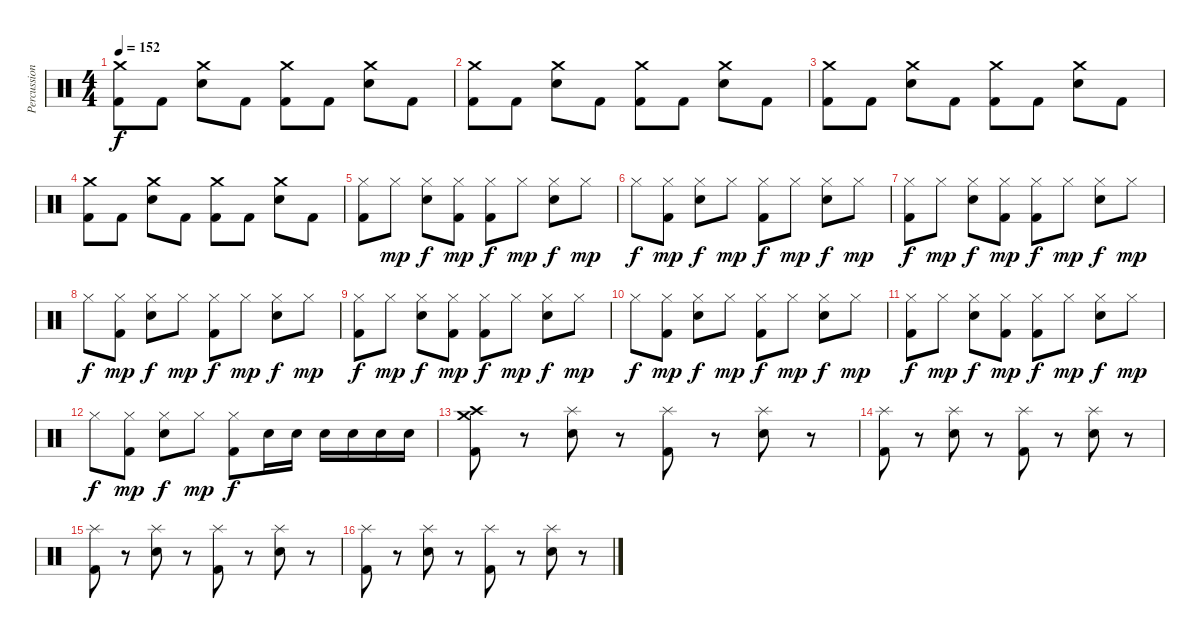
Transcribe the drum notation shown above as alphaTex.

\track ("Percussions" "Percussion") {instrument percussion}
\staff {score}
\articulation defaults
\ts (4 4)
\tempo 152
\clef neutral
\ks c
("Crash medium (hit)" "Kick (hit) 2").8{dy f} "Kick (hit) 2".8 ("Crash medium (hit)" "Electric Snare (hit)").8 "Kick (hit) 2".8 ("Crash medium (hit)" "Kick (hit) 2").8 "Kick (hit) 2".8 ("Crash medium (hit)" "Electric Snare (hit)").8 "Kick (hit) 2".8 |
("Crash medium (hit)" "Kick (hit) 2").8 "Kick (hit) 2".8 ("Crash medium (hit)" "Electric Snare (hit)").8 "Kick (hit) 2".8 ("Crash medium (hit)" "Kick (hit) 2").8 "Kick (hit) 2".8 ("Crash medium (hit)" "Electric Snare (hit)").8 "Kick (hit) 2".8 |
("Crash medium (hit)" "Kick (hit) 2").8 "Kick (hit) 2".8 ("Crash medium (hit)" "Electric Snare (hit)").8 "Kick (hit) 2".8 ("Crash medium (hit)" "Kick (hit) 2").8 "Kick (hit) 2".8 ("Crash medium (hit)" "Electric Snare (hit)").8 "Kick (hit) 2".8 |
("Crash medium (hit)" "Kick (hit) 2").8 "Kick (hit) 2".8 ("Crash medium (hit)" "Electric Snare (hit)").8 "Kick (hit) 2".8 ("Crash medium (hit)" "Kick (hit) 2").8 "Kick (hit) 2".8 ("Crash medium (hit)" "Electric Snare (hit)").8 "Kick (hit) 2".8 |
("Hi-Hat (closed)" "Kick (hit) 2").8 "Hi-Hat (closed)".8{dy mp} ("Hi-Hat (closed)" "Electric Snare (hit)").8{dy f} ("Hi-Hat (closed)" "Kick (hit) 2").8{dy mp} ("Hi-Hat (closed)" "Kick (hit) 2").8{dy f} "Hi-Hat (closed)".8{dy mp} ("Hi-Hat (closed)" "Electric Snare (hit)").8{dy f} "Hi-Hat (closed)".8{dy mp} |
"Hi-Hat (closed)".8{dy f} ("Hi-Hat (closed)" "Kick (hit) 2").8{dy mp} ("Hi-Hat (closed)" "Electric Snare (hit)").8{dy f} "Hi-Hat (closed)".8{dy mp} ("Hi-Hat (closed)" "Kick (hit) 2").8{dy f} "Hi-Hat (closed)".8{dy mp} ("Hi-Hat (closed)" "Electric Snare (hit)").8{dy f} "Hi-Hat (closed)".8{dy mp} |
("Hi-Hat (closed)" "Kick (hit) 2").8{dy f} "Hi-Hat (closed)".8{dy mp} ("Hi-Hat (closed)" "Electric Snare (hit)").8{dy f} ("Hi-Hat (closed)" "Kick (hit) 2").8{dy mp} ("Hi-Hat (closed)" "Kick (hit) 2").8{dy f} "Hi-Hat (closed)".8{dy mp} ("Hi-Hat (closed)" "Electric Snare (hit)").8{dy f} "Hi-Hat (closed)".8{dy mp} |
"Hi-Hat (closed)".8{dy f} ("Hi-Hat (closed)" "Kick (hit) 2").8{dy mp} ("Hi-Hat (closed)" "Electric Snare (hit)").8{dy f} "Hi-Hat (closed)".8{dy mp} ("Hi-Hat (closed)" "Kick (hit) 2").8{dy f} "Hi-Hat (closed)".8{dy mp} ("Hi-Hat (closed)" "Electric Snare (hit)").8{dy f} "Hi-Hat (closed)".8{dy mp} |
("Hi-Hat (closed)" "Kick (hit) 2").8{dy f} "Hi-Hat (closed)".8{dy mp} ("Hi-Hat (closed)" "Electric Snare (hit)").8{dy f} ("Hi-Hat (closed)" "Kick (hit) 2").8{dy mp} ("Hi-Hat (closed)" "Kick (hit) 2").8{dy f} "Hi-Hat (closed)".8{dy mp} ("Hi-Hat (closed)" "Electric Snare (hit)").8{dy f} "Hi-Hat (closed)".8{dy mp} |
"Hi-Hat (closed)".8{dy f} ("Hi-Hat (closed)" "Kick (hit) 2").8{dy mp} ("Hi-Hat (closed)" "Electric Snare (hit)").8{dy f} "Hi-Hat (closed)".8{dy mp} ("Hi-Hat (closed)" "Kick (hit) 2").8{dy f} "Hi-Hat (closed)".8{dy mp} ("Hi-Hat (closed)" "Electric Snare (hit)").8{dy f} "Hi-Hat (closed)".8{dy mp} |
("Hi-Hat (closed)" "Kick (hit) 2").8{dy f} "Hi-Hat (closed)".8{dy mp} ("Hi-Hat (closed)" "Electric Snare (hit)").8{dy f} ("Hi-Hat (closed)" "Kick (hit) 2").8{dy mp} ("Hi-Hat (closed)" "Kick (hit) 2").8{dy f} "Hi-Hat (closed)".8{dy mp} ("Hi-Hat (closed)" "Electric Snare (hit)").8{dy f} "Hi-Hat (closed)".8{dy mp} |
"Hi-Hat (closed)".8{dy f} ("Hi-Hat (closed)" "Kick (hit) 2").8{dy mp} ("Hi-Hat (closed)" "Electric Snare (hit)").8{dy f} "Hi-Hat (closed)".8{dy mp} ("Hi-Hat (closed)" "Kick (hit) 2").8{dy f} "Electric Snare (hit)".16 "Electric Snare (hit)".16 "Electric Snare (hit)".16 "Electric Snare (hit)".16 "Electric Snare (hit)".16 "Electric Snare (hit)".16 |
("Crash medium (hit)" "Crash high (hit)" "Kick (hit) 2").8 r.8 ("Splash (hit)" "Electric Snare (hit)").8 r.8 ("Splash (hit)" "Kick (hit) 2").8 r.8 ("Splash (hit)" "Electric Snare (hit)").8 r.8 |
("Splash (hit)" "Kick (hit) 2").8 r.8 ("Splash (hit)" "Electric Snare (hit)").8 r.8 ("Splash (hit)" "Kick (hit) 2").8 r.8 ("Splash (hit)" "Electric Snare (hit)").8 r.8 |
("Splash (hit)" "Kick (hit) 2").8 r.8 ("Splash (hit)" "Electric Snare (hit)").8 r.8 ("Splash (hit)" "Kick (hit) 2").8 r.8 ("Splash (hit)" "Electric Snare (hit)").8 r.8 |
("Splash (hit)" "Kick (hit) 2").8 r.8 ("Splash (hit)" "Electric Snare (hit)").8 r.8 ("Splash (hit)" "Kick (hit) 2").8 r.8 ("Splash (hit)" "Electric Snare (hit)").8 r.8
